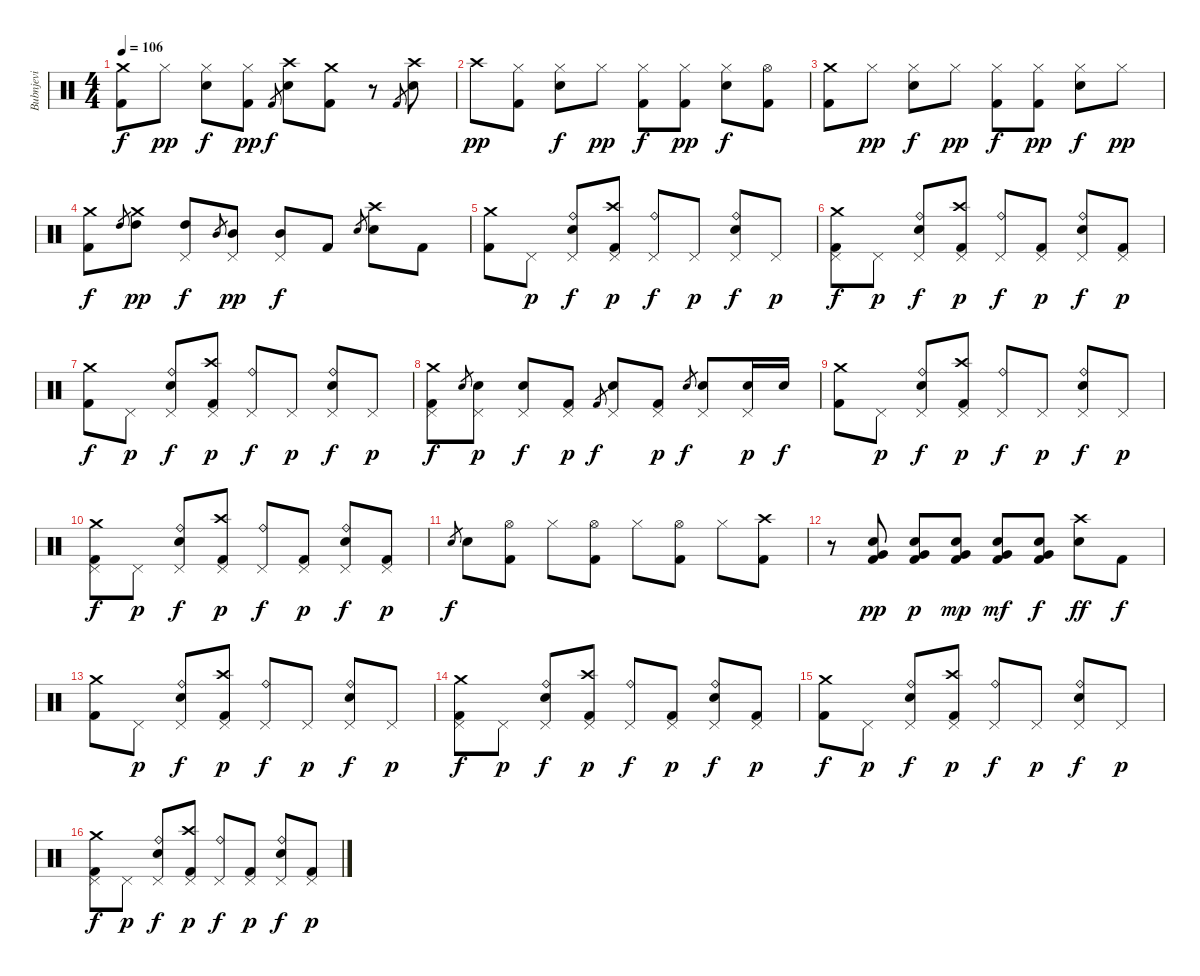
\track ("Bubnjevi" "Bubnjevi") {instrument percussion}
\staff {score}
\articulation defaults
\ts (4 4)
\tempo 106
\clef neutral
\ks c
("Crash medium (hit)" "Kick (hit) 2").8{dy f} "Hi-Hat (closed)".8{dy pp} ("Hi-Hat (closed)" "Electric Snare (hit)").8{dy f} ("Hi-Hat (closed)" "Kick (hit) 2").8{dy pp} "Kick (hit) 2".8{gr dy f} ("Crash high (hit)" "Electric Snare (hit)").8 ("Crash medium (hit)" "Kick (hit) 2").8 r.8 "Kick (hit) 2".8{gr} ("Crash high (hit)" "Electric Snare (hit)").8 |
"Crash high (hit)".8{dy pp} ("Hi-Hat (closed)" "Kick (hit) 2").8 ("Hi-Hat (closed)" "Electric Snare (hit)").8{dy f} "Hi-Hat (closed)".8{dy pp} ("Hi-Hat (closed)" "Kick (hit) 2").8{dy f} ("Hi-Hat (closed)" "Kick (hit) 2").8{dy pp} ("Hi-Hat (closed)" "Electric Snare (hit)").8{dy f} ("Hi-Hat (open)" "Kick (hit) 2").8 |
("Crash medium (hit)" "Kick (hit) 2").8 "Hi-Hat (closed)".8{dy pp} ("Hi-Hat (closed)" "Electric Snare (hit)").8{dy f} "Hi-Hat (closed)".8{dy pp} ("Hi-Hat (closed)" "Kick (hit) 2").8{dy f} ("Hi-Hat (closed)" "Kick (hit) 2").8{dy pp} ("Hi-Hat (closed)" "Electric Snare (hit)").8{dy f} "Hi-Hat (closed)".8{dy pp} |
("Crash medium (hit)" "Kick (hit) 2").8{dy f} "High Tom (hit)".8{gr} ("Crash medium (hit)" "High Tom (hit)").8{dy pp} ("Pedal Hi-Hat (hit)" "High Tom (hit)").8{dy f} "Mid Tom (hit)".8{gr} ("Pedal Hi-Hat (hit)" "Mid Tom (hit)").8{dy pp} ("Pedal Hi-Hat (hit)" "Mid Tom (hit)").8{dy f} "Kick (hit) 2".8 "Electric Snare (hit)".8{gr} ("Crash high (hit)" "Electric Snare (hit)").8 "Kick (hit) 2".8 |
("Crash medium (hit)" "Kick (hit) 2").8 "Pedal Hi-Hat (hit)".8{dy p} ("Ride (bell)" "Electric Snare (hit)" "Pedal Hi-Hat (hit)").8{dy f} ("Crash high (hit)" "Kick (hit) 2" "Pedal Hi-Hat (hit)").8{dy p} ("Ride (bell)" "Pedal Hi-Hat (hit)").8{dy f} "Pedal Hi-Hat (hit)".8{dy p} ("Ride (bell)" "Electric Snare (hit)" "Pedal Hi-Hat (hit)").8{dy f} "Pedal Hi-Hat (hit)".8{dy p} |
("Crash medium (hit)" "Kick (hit) 2" "Pedal Hi-Hat (hit)").8{dy f} "Pedal Hi-Hat (hit)".8{dy p} ("Ride (bell)" "Electric Snare (hit)" "Pedal Hi-Hat (hit)").8{dy f} ("Crash high (hit)" "Kick (hit) 2" "Pedal Hi-Hat (hit)").8{dy p} ("Ride (bell)" "Pedal Hi-Hat (hit)").8{dy f} ("Kick (hit) 2" "Pedal Hi-Hat (hit)").8{dy p} ("Ride (bell)" "Electric Snare (hit)" "Pedal Hi-Hat (hit)").8{dy f} ("Kick (hit) 2" "Pedal Hi-Hat (hit)").8{dy p} |
("Crash medium (hit)" "Kick (hit) 2").8{dy f} "Pedal Hi-Hat (hit)".8{dy p} ("Ride (bell)" "Electric Snare (hit)" "Pedal Hi-Hat (hit)").8{dy f} ("Crash high (hit)" "Kick (hit) 2" "Pedal Hi-Hat (hit)").8{dy p} ("Ride (bell)" "Pedal Hi-Hat (hit)").8{dy f} "Pedal Hi-Hat (hit)".8{dy p} ("Ride (bell)" "Electric Snare (hit)" "Pedal Hi-Hat (hit)").8{dy f} "Pedal Hi-Hat (hit)".8{dy p} |
("Crash medium (hit)" "Kick (hit) 2" "Pedal Hi-Hat (hit)").8{dy f} "Electric Snare (hit)".8{gr} ("Electric Snare (hit)" "Pedal Hi-Hat (hit)").8{dy p} ("Electric Snare (hit)" "Pedal Hi-Hat (hit)").8{dy f} ("Kick (hit) 2" "Pedal Hi-Hat (hit)").8{dy p} "Kick (hit) 2".8{gr dy f} ("Electric Snare (hit)" "Pedal Hi-Hat (hit)").8 ("Kick (hit) 2" "Pedal Hi-Hat (hit)").8{dy p} "Electric Snare (hit)".8{gr dy f} ("Electric Snare (hit)" "Pedal Hi-Hat (hit)").8 ("Electric Snare (hit)" "Pedal Hi-Hat (hit)").16{dy p} "Electric Snare (hit)".16{dy f} |
("Crash medium (hit)" "Kick (hit) 2").8 "Pedal Hi-Hat (hit)".8{dy p} ("Ride (bell)" "Electric Snare (hit)" "Pedal Hi-Hat (hit)").8{dy f} ("Crash high (hit)" "Kick (hit) 2" "Pedal Hi-Hat (hit)").8{dy p} ("Ride (bell)" "Pedal Hi-Hat (hit)").8{dy f} "Pedal Hi-Hat (hit)".8{dy p} ("Ride (bell)" "Electric Snare (hit)" "Pedal Hi-Hat (hit)").8{dy f} "Pedal Hi-Hat (hit)".8{dy p} |
("Crash medium (hit)" "Kick (hit) 2" "Pedal Hi-Hat (hit)").8{dy f} "Pedal Hi-Hat (hit)".8{dy p} ("Ride (bell)" "Electric Snare (hit)" "Pedal Hi-Hat (hit)").8{dy f} ("Crash high (hit)" "Kick (hit) 2" "Pedal Hi-Hat (hit)").8{dy p} ("Ride (bell)" "Pedal Hi-Hat (hit)").8{dy f} ("Kick (hit) 2" "Pedal Hi-Hat (hit)").8{dy p} ("Ride (bell)" "Electric Snare (hit)" "Pedal Hi-Hat (hit)").8{dy f} ("Kick (hit) 2" "Pedal Hi-Hat (hit)").8{dy p} |
"Electric Snare (hit)".8{gr dy f} "Electric Snare (hit)".8 ("Hi-Hat (open)" "Kick (hit) 2").8 "Hi-Hat (closed)".8 ("Hi-Hat (open)" "Kick (hit) 2").8 "Hi-Hat (closed)".8 ("Hi-Hat (open)" "Kick (hit) 2").8 "Hi-Hat (closed)".8 ("Crash high (hit)" "Kick (hit) 2").8 |
r.8 ("Electric Snare (hit)" "Kick (hit) 2" "Very Low Tom (hit)").8{dy pp} ("Electric Snare (hit)" "Kick (hit) 2" "Very Low Tom (hit)").8{dy p} ("Electric Snare (hit)" "Kick (hit) 2" "Very Low Tom (hit)").8{dy mp} ("Electric Snare (hit)" "Kick (hit) 2" "Very Low Tom (hit)").8{dy mf} ("Electric Snare (hit)" "Kick (hit) 2" "Very Low Tom (hit)").8{dy f} ("Crash high (hit)" "Electric Snare (hit)").8{dy ff} "Kick (hit) 2".8{dy f} |
("Crash medium (hit)" "Kick (hit) 2").8 "Pedal Hi-Hat (hit)".8{dy p} ("Ride (bell)" "Electric Snare (hit)" "Pedal Hi-Hat (hit)").8{dy f} ("Crash high (hit)" "Kick (hit) 2" "Pedal Hi-Hat (hit)").8{dy p} ("Ride (bell)" "Pedal Hi-Hat (hit)").8{dy f} "Pedal Hi-Hat (hit)".8{dy p} ("Ride (bell)" "Electric Snare (hit)" "Pedal Hi-Hat (hit)").8{dy f} "Pedal Hi-Hat (hit)".8{dy p} |
("Crash medium (hit)" "Kick (hit) 2" "Pedal Hi-Hat (hit)").8{dy f} "Pedal Hi-Hat (hit)".8{dy p} ("Ride (bell)" "Electric Snare (hit)" "Pedal Hi-Hat (hit)").8{dy f} ("Crash high (hit)" "Kick (hit) 2" "Pedal Hi-Hat (hit)").8{dy p} ("Ride (bell)" "Pedal Hi-Hat (hit)").8{dy f} ("Kick (hit) 2" "Pedal Hi-Hat (hit)").8{dy p} ("Ride (bell)" "Electric Snare (hit)" "Pedal Hi-Hat (hit)").8{dy f} ("Kick (hit) 2" "Pedal Hi-Hat (hit)").8{dy p} |
("Crash medium (hit)" "Kick (hit) 2").8{dy f} "Pedal Hi-Hat (hit)".8{dy p} ("Ride (bell)" "Electric Snare (hit)" "Pedal Hi-Hat (hit)").8{dy f} ("Crash high (hit)" "Kick (hit) 2" "Pedal Hi-Hat (hit)").8{dy p} ("Ride (bell)" "Pedal Hi-Hat (hit)").8{dy f} "Pedal Hi-Hat (hit)".8{dy p} ("Ride (bell)" "Electric Snare (hit)" "Pedal Hi-Hat (hit)").8{dy f} "Pedal Hi-Hat (hit)".8{dy p} |
("Crash medium (hit)" "Kick (hit) 2" "Pedal Hi-Hat (hit)").8{dy f} "Pedal Hi-Hat (hit)".8{dy p} ("Ride (bell)" "Electric Snare (hit)" "Pedal Hi-Hat (hit)").8{dy f} ("Crash high (hit)" "Kick (hit) 2" "Pedal Hi-Hat (hit)").8{dy p} ("Ride (bell)" "Pedal Hi-Hat (hit)").8{dy f} ("Kick (hit) 2" "Pedal Hi-Hat (hit)").8{dy p} ("Ride (bell)" "Electric Snare (hit)" "Pedal Hi-Hat (hit)").8{dy f} ("Kick (hit) 2" "Pedal Hi-Hat (hit)").8{dy p}
